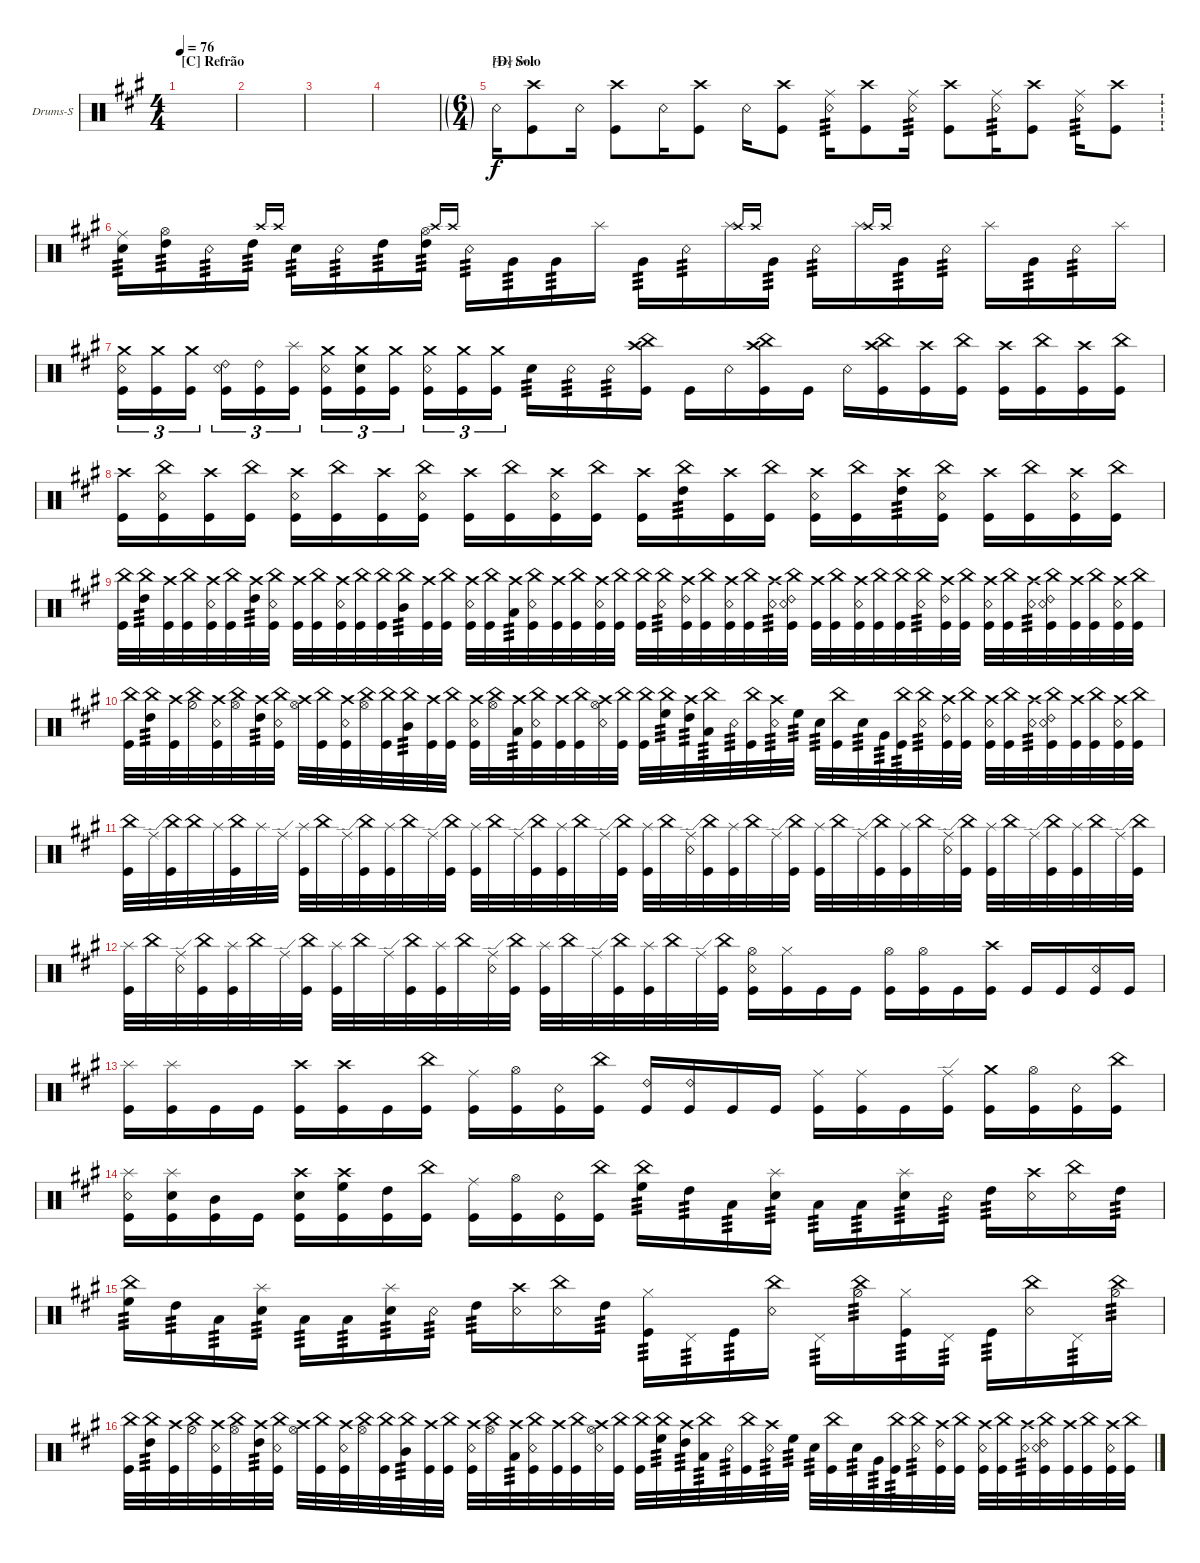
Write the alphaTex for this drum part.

\defaultSystemsLayout 4
\bracketExtendMode groupsimilarinstruments
\firstSystemTrackNameOrientation horizontal
\otherSystemsTrackNameOrientation horizontal
\track ("Drums-Solo" "Drums-S") {instrument percussion}
\staff {score}
\articulation defaults
\ts (4 4)
\section ("C" "Refrão")
\tempo 76
\clef neutral
\ks a
|
|
|
|
\ts (6 4)
\ft
\section ("D" "Solo")
"Snare (rim shot)".16 ("Kick (hit)" "Crash high (hit)").8 "Snare (rim shot)".16 ("Kick (hit)" "Crash high (hit)").8 "Snare (rim shot)".16 ("Kick (hit)" "Crash high (hit)").8 "Snare (rim shot)".16 ("Kick (hit)" "Crash high (hit)").8 ("Snare (rim shot)" "Ride (middle)").16{tp 3} ("Kick (hit)" "Crash high (hit)").8 ("Snare (rim shot)" "Ride (middle)").16{tp 3} ("Kick (hit)" "Crash high (hit)").8 ("Snare (rim shot)" "Ride (middle)").16{tp 3} ("Kick (hit)" "Crash high (hit)").8 ("Snare (rim shot)" "Ride (middle)").16{tp 3} ("Kick (hit)" "Crash high (hit)").8 |
("Snare (hit) 2" "Ride (middle)").16{tp 3} ("High Tom (hit)" "Hi-Hat (open)").16{tp 3} "Snare (rim shot)".16{tp 3} "High Tom (hit)".16{tp 3} "Crash high (hit)".16{gr onbeat} "Crash high (hit)".16{gr onbeat} "Snare (hit) 2".16{tp 3} "Snare (rim shot)".16{tp 3} "High Tom (hit)".16{tp 3} ("High Tom (hit)" "Hi-Hat (open)").16{tp 3} "Crash high (hit)".16{gr onbeat} "Crash high (hit)".16{gr onbeat} "Snare (rim shot)".16{tp 3} "Very Low Tom (hit)".16{tp 3} "Very Low Tom (hit)".16{tp 3} "Splash (hit)".16 "Very Low Tom (hit)".16{tp 3} "Snare (rim shot)".16{tp 3} "Splash (hit)".16 "Crash high (hit)".16{gr onbeat} "Crash high (hit)".16{gr onbeat} "Very Low Tom (hit)".16{tp 3} "Snare (rim shot)".16{tp 3} "Splash (hit)".16 "Crash high (hit)".16{gr onbeat} "Crash high (hit)".16{gr onbeat} "Very Low Tom (hit)".16{tp 3} "Snare (rim shot)".16{tp 3} "Splash (hit)".16 "Very Low Tom (hit)".16{tp 3} "Snare (rim shot)".16{tp 3} "Splash (hit)".16 |
("Kick (hit)" "Snare (rim shot)" "Crash medium (hit)").16{tu (3 2)} ("Kick (hit)" "Crash medium (hit)").16{tu (3 2)} ("Kick (hit)" "Crash medium (hit)").16{tu (3 2)} ("Kick (hit)" "Snare (rim shot)" "Ride (bell) 2").16{tu (3 2)} ("Kick (hit)" "Ride (bell) 2").16{tu (3 2)} ("Kick (hit)" "Splash (hit)").16{tu (3 2)} ("Kick (hit)" "Snare (rim shot)" "Crash medium (hit)").16{tu (3 2)} ("Kick (hit)" "Snare (hit) 2" "Crash medium (hit)").16{tu (3 2)} ("Kick (hit)" "Crash medium (hit)").16{tu (3 2)} ("Kick (hit)" "Snare (rim shot)" "Crash medium (hit)").16{tu (3 2)} ("Kick (hit)" "Crash medium (hit)").16{tu (3 2)} ("Kick (hit)" "Crash medium (hit)").16{tu (3 2)} "Snare (hit) 2".16{tp 3} "Snare (rim shot)".16{tp 3} "Snare (rim shot)".16{tp 3} ("China (hit)" "Crash high (hit)" "Kick (hit)").16 "Kick (hit)".16 "Snare (rim shot)".16 ("China (hit)" "Crash high (hit)" "Kick (hit)").16 "Kick (hit)".16 "Snare (rim shot)".16 ("China (hit)" "Crash high (hit)" "Kick (hit)").16 ("Kick (hit)" "Crash high (hit)").16 ("Kick (hit)" "China (hit)").16 ("Kick (hit)" "Crash high (hit)").16 ("Kick (hit)" "China (hit)").16 ("Kick (hit)" "Crash high (hit)").16 ("Kick (hit)" "China (hit)").16 |
("Kick (hit)" "Crash high (hit)").16 ("Kick (hit)" "China (hit)" "Snare (rim shot)").16 ("Kick (hit)" "Crash high (hit)").16 ("Kick (hit)" "China (hit)").16 ("Kick (hit)" "Crash high (hit)" "Snare (rim shot)").16 ("Kick (hit)" "China (hit)").16 ("Kick (hit)" "Crash high (hit)").16 ("Kick (hit)" "China (hit)" "Snare (rim shot)").16 ("Kick (hit)" "Crash high (hit)").16 ("Kick (hit)" "China (hit)").16 ("Kick (hit)" "Crash high (hit)" "Snare (rim shot)").16 ("Kick (hit)" "China (hit)").16 ("Kick (hit)" "Crash high (hit)").16 ("China (hit)" "High Tom (hit)").16{tp 3} ("Kick (hit)" "Crash high (hit)").16 ("Kick (hit)" "China (hit)").16 ("Kick (hit)" "Crash high (hit)" "Snare (rim shot)").16 ("Kick (hit)" "China (hit)").16 ("Crash high (hit)" "High Tom (hit)").16{tp 3} ("Kick (hit)" "China (hit)" "Snare (rim shot)").16 ("Kick (hit)" "Crash high (hit)").16 ("Kick (hit)" "China (hit)").16 ("Kick (hit)" "Crash high (hit)" "Snare (rim shot)").16 ("Kick (hit)" "China (hit)").16 |
("Kick (hit)" "China (hit)").32 ("China (hit)" "High Tom (hit)").32{tp 3} ("Kick (hit)" "Crash high (hit)").32 ("Kick (hit)" "China (hit)").32 ("Kick (hit)" "Crash high (hit)" "Snare (rim shot)").32 ("Kick (hit)" "China (hit)").32 ("Crash high (hit)" "High Tom (hit)").32{tp 3} ("Kick (hit)" "China (hit)" "Snare (rim shot)").32 ("Kick (hit)" "Crash high (hit)").32 ("Kick (hit)" "China (hit)").32 ("Kick (hit)" "Crash high (hit)" "Snare (rim shot)").32 ("Kick (hit)" "China (hit)").32 ("Kick (hit)" "China (hit)").32 ("China (hit)" "Mid Tom (hit)").32{tp 3} ("Kick (hit)" "Crash high (hit)").32 ("Kick (hit)" "China (hit)").32 ("Kick (hit)" "Crash high (hit)" "Snare (rim shot)").32 ("Kick (hit)" "China (hit)").32 ("Crash high (hit)" "Low Tom (hit)").32{tp 3} ("Kick (hit)" "China (hit)" "Snare (rim shot)").32 ("Kick (hit)" "Crash high (hit)").32 ("Kick (hit)" "China (hit)").32 ("Kick (hit)" "Crash high (hit)" "Snare (rim shot)").32 ("Kick (hit)" "China (hit)").32 ("Kick (hit)" "China (hit)").32 ("China (hit)" "Snare (rim shot)").32{tp 3} ("Kick (hit)" "Crash high (hit)" "Ride (bell) 2").32 ("Kick (hit)" "China (hit)").32 ("Kick (hit)" "Crash high (hit)" "Snare (rim shot)").32 ("Kick (hit)" "China (hit)").32 ("Crash high (hit)" "Snare (rim shot)").32{tp 3} ("Kick (hit)" "China (hit)" "Snare (rim shot)" "Ride (bell) 2").32 ("Kick (hit)" "Crash high (hit)").32 ("Kick (hit)" "China (hit)").32 ("Kick (hit)" "Crash high (hit)" "Snare (rim shot)").32 ("Kick (hit)" "China (hit)").32 ("Kick (hit)" "China (hit)").32 ("China (hit)" "Snare (rim shot)").32{tp 3} ("Kick (hit)" "Crash high (hit)" "Ride (bell) 2").32 ("Kick (hit)" "China (hit)").32 ("Kick (hit)" "Crash high (hit)" "Snare (rim shot)").32 ("Kick (hit)" "China (hit)").32 ("Crash high (hit)" "Snare (rim shot)").32{tp 3} ("Kick (hit)" "China (hit)" "Snare (rim shot)" "Ride (bell) 2").32 ("Kick (hit)" "Crash high (hit)").32 ("Kick (hit)" "China (hit)").32 ("Kick (hit)" "Crash high (hit)" "Snare (rim shot)").32 ("Kick (hit)" "China (hit)").32 |
("Kick (hit)" "China (hit)").32 ("China (hit)" "High Tom (hit)").32{tp 3} ("Kick (hit)" "Crash high (hit)").32 ("China (hit)" "Hi-Hat (half)").32 ("Kick (hit)" "Crash high (hit)" "Snare (rim shot)").32 ("China (hit)" "Hi-Hat (open)").32 ("Crash high (hit)" "High Tom (hit)").32{tp 3} ("Kick (hit)" "China (hit)" "Snare (rim shot)").32 ("Crash high (hit)" "Hi-Hat (open)").32 ("Kick (hit)" "China (hit)").32 ("Kick (hit)" "Crash high (hit)" "Snare (rim shot)").32 ("China (hit)" "Hi-Hat (open)").32 ("Kick (hit)" "China (hit)").32 ("China (hit)" "Mid Tom (hit)").32{tp 3} ("Kick (hit)" "Crash high (hit)").32 ("Kick (hit)" "China (hit)").32 ("Kick (hit)" "Crash high (hit)" "Snare (rim shot)").32 ("China (hit)" "Hi-Hat (open)").32 ("Crash high (hit)" "Low Tom (hit)").32{tp 3} ("Kick (hit)" "China (hit)" "Snare (rim shot)").32 ("Kick (hit)" "Crash high (hit)").32 ("Kick (hit)" "China (hit)").32 ("Crash high (hit)" "Snare (rim shot)" "Hi-Hat (open)").32 ("Kick (hit)" "China (hit)").32 ("Kick (hit)" "China (hit)").32 ("China (hit)" "High Floor Tom (hit)").32{tp 3} ("Crash high (hit)" "High Tom (hit)").32{tp 3} ("China (hit)" "Low Tom (hit)").32{tp 3} "Snare (rim shot)".32{tp 3} ("Kick (hit)" "China (hit)").32 ("Crash high (hit)" "Snare (rim shot)").32{tp 3} "High Floor Tom (hit)".32{tp 3} "Snare (hit) 2".32{tp 3} ("Kick (hit)" "China (hit)").32 "Snare (hit) 2".32{tp 3} "Very Low Tom (hit)".32{tp 3} ("Kick (hit)" "China (hit)").32{tp 3} ("China (hit)" "Snare (rim shot)").32{tp 3} ("Kick (hit)" "Crash high (hit)" "Ride (bell) 2").32 ("Kick (hit)" "China (hit)").32 ("Kick (hit)" "Crash high (hit)" "Snare (rim shot)").32 ("Kick (hit)" "China (hit)").32 ("Crash high (hit)" "Snare (rim shot)").32{tp 3} ("Kick (hit)" "China (hit)" "Snare (rim shot)" "Ride (bell) 2").32 ("Kick (hit)" "Crash high (hit)").32 ("Kick (hit)" "China (hit)").32 ("Kick (hit)" "Crash high (hit)" "Snare (rim shot)").32 ("Kick (hit)" "China (hit)").32 |
("Kick (hit)" "China (hit)").32 "Ride (edge)".32 ("Kick (hit)" "China (hit)").32 "China (hit)".32 "Splash (hit)".32 ("Kick (hit)" "China (hit)").32 "Splash (hit)".32 "Ride (edge)".32 ("Kick (hit)" "Splash (hit)").32 "China (hit)".32 "Ride (edge)".32 ("Kick (hit)" "China (hit)").32 ("Kick (hit)" "Splash (hit)").32 "China (hit)".32 "Ride (edge)".32 ("Kick (hit)" "China (hit)").32 ("Kick (hit)" "Splash (hit)").32 "China (hit)".32 "Ride (edge)".32 ("Kick (hit)" "China (hit)").32 ("Kick (hit)" "Splash (hit)").32 "China (hit)".32 "Ride (edge)".32 ("Kick (hit)" "China (hit)").32 ("Kick (hit)" "Splash (hit)").32 "China (hit)".32 ("Ride (edge)" "Snare (rim shot)").32 ("Kick (hit)" "China (hit)").32 ("Kick (hit)" "Splash (hit)").32 "China (hit)".32 "Ride (edge)".32 ("Kick (hit)" "China (hit)").32 ("Kick (hit)" "Splash (hit)").32 "China (hit)".32 "Ride (edge)".32 ("Kick (hit)" "China (hit)").32 ("Kick (hit)" "Splash (hit)").32 "China (hit)".32 ("Ride (edge)" "Snare (rim shot)").32 ("Kick (hit)" "China (hit)").32 ("Kick (hit)" "Splash (hit)").32 "China (hit)".32 "Ride (edge)".32 ("Kick (hit)" "China (hit)").32 ("Kick (hit)" "Splash (hit)").32 "China (hit)".32 "Ride (edge)".32 ("Kick (hit)" "China (hit)").32 |
("Kick (hit)" "Splash (hit)").32 "China (hit)".32 ("Ride (edge)" "Snare (rim shot)").32 ("Kick (hit)" "China (hit)").32 ("Kick (hit)" "Splash (hit)").32 "China (hit)".32 "Ride (edge)".32 ("Kick (hit)" "China (hit)").32 ("Kick (hit)" "Splash (hit)").32 "China (hit)".32 "Ride (edge)".32 ("Kick (hit)" "China (hit)").32 ("Kick (hit)" "Splash (hit)").32 "China (hit)".32 ("Ride (edge)" "Snare (rim shot)").32 ("Kick (hit)" "China (hit)").32 ("Kick (hit)" "Splash (hit)").32 "China (hit)".32 "Ride (edge)".32 ("Kick (hit)" "China (hit)").32 ("Kick (hit)" "Splash (hit)").32 "China (hit)".32 "Ride (edge)".32 ("Kick (hit)" "China (hit)").32 ("Hi-Hat (open)" "Snare (rim shot)" "Kick (hit)").16 ("Kick (hit)" "Hi-Hat (closed)").16 "Kick (hit)".16 "Kick (hit)".16 ("Kick (hit)" "Hi-Hat (open)").16 ("Kick (hit)" "Hi-Hat (open)").16 "Kick (hit)".16 ("Kick (hit)" "Crash high (hit)").16 "Kick (hit)".16 "Kick (hit)".16 ("Kick (hit)" "Snare (rim shot)").16 "Kick (hit)".16 |
("Splash (hit)" "Kick (hit)").16 ("Kick (hit)" "Splash (hit)").16 "Kick (hit)".16 "Kick (hit)".16 ("Kick (hit)" "Crash high (hit)").16 ("Kick (hit)" "Crash high (hit)").16 "Kick (hit)".16 ("Kick (hit)" "China (hit)").16 ("Kick (hit)" "Ride (middle)").16 ("Kick (hit)" "Hi-Hat (open)").16 ("Kick (hit)" "Snare (rim shot)").16 ("Kick (hit)" "China (hit)").16 ("Kick (hit)" "Ride (bell) 2").16 ("Kick (hit)" "Ride (bell) 2").16 "Kick (hit)".16 "Kick (hit)".16 ("Kick (hit)" "Ride (middle)").16 ("Kick (hit)" "Ride (middle)").16 "Kick (hit)".16 ("Kick (hit)" "Ride (edge)").16 ("Kick (hit)" "Crash medium (hit)").16 ("Kick (hit)" "Hi-Hat (open)").16 ("Kick (hit)" "Snare (rim shot)").16 ("Kick (hit)" "China (hit)").16 |
("Splash (hit)" "Kick (hit)" "Snare (rim shot)").16 ("Kick (hit)" "Splash (hit)" "Snare (hit) 2").16 ("Kick (hit)" "Mid Tom (hit)").16 "Kick (hit)".16 ("Kick (hit)" "Crash high (hit)" "Snare (hit) 2").16 ("Kick (hit)" "Crash high (hit)" "High Floor Tom (hit)").16 ("Kick (hit)" "High Tom (hit)").16 ("Kick (hit)" "China (hit)").16 ("Kick (hit)" "Ride (middle)").16 ("Kick (hit)" "Hi-Hat (open)").16 ("Kick (hit)" "Snare (rim shot)").16 ("Kick (hit)" "China (hit)").16 ("China (hit)" "High Floor Tom (hit)").16{tp 3} "High Tom (hit)".16{tp 3} "Low Tom (hit)".16{tp 3} ("Snare (hit) 2" "Splash (hit)").16{tp 3} "Low Tom (hit)".16{tp 3} "Low Tom (hit)".16{tp 3} ("Snare (hit) 2" "Splash (hit)").16{tp 3} "Snare (rim shot)".16{tp 3} "High Tom (hit)".16{tp 3} ("Snare (rim shot)" "Crash high (hit)").16 ("China (hit)" "Snare (rim shot)").16 "High Tom (hit)".16{tp 3} |
("China (hit)" "High Floor Tom (hit)").16{tp 3} "High Tom (hit)".16{tp 3} "Low Tom (hit)".16{tp 3} ("Snare (hit) 2" "Splash (hit)").16{tp 3} "Low Tom (hit)".16{tp 3} "Low Tom (hit)".16{tp 3} ("Snare (hit) 2" "Splash (hit)").16{tp 3} "Snare (rim shot)".16{tp 3} "High Tom (hit)".16{tp 3} ("Snare (rim shot)" "Crash high (hit)").16 ("China (hit)" "Snare (rim shot)").16 "High Tom (hit)".16{tp 3} ("Kick (hit)" "Hi-Hat (closed)").16{tp 3} "Pedal Hi-Hat (hit)".16{tp 3} "Kick (hit)".16{tp 3} ("Snare (rim shot)" "China (hit)").16 "Pedal Hi-Hat (hit)".16{tp 3} ("China (hit)" "Hi-Hat (half)").16{tp 3} ("Kick (hit)" "Hi-Hat (closed)").16{tp 3} "Pedal Hi-Hat (hit)".16{tp 3} "Kick (hit)".16{tp 3} ("Snare (rim shot)" "China (hit)").16 "Pedal Hi-Hat (hit)".16{tp 3} ("China (hit)" "Hi-Hat (half)").16{tp 3} |
("Kick (hit)" "China (hit)").32 ("China (hit)" "High Tom (hit)").32{tp 3} ("Kick (hit)" "Crash high (hit)").32 ("China (hit)" "Hi-Hat (half)").32 ("Kick (hit)" "Crash high (hit)" "Snare (rim shot)").32 ("China (hit)" "Hi-Hat (open)").32 ("Crash high (hit)" "High Tom (hit)").32{tp 3} ("Kick (hit)" "China (hit)" "Snare (rim shot)").32 ("Crash high (hit)" "Hi-Hat (open)").32 ("Kick (hit)" "China (hit)").32 ("Kick (hit)" "Crash high (hit)" "Snare (rim shot)").32 ("China (hit)" "Hi-Hat (open)").32 ("Kick (hit)" "China (hit)").32 ("China (hit)" "Mid Tom (hit)").32{tp 3} ("Kick (hit)" "Crash high (hit)").32 ("Kick (hit)" "China (hit)").32 ("Kick (hit)" "Crash high (hit)" "Snare (rim shot)").32 ("China (hit)" "Hi-Hat (open)").32 ("Crash high (hit)" "Low Tom (hit)").32{tp 3} ("Kick (hit)" "China (hit)" "Snare (rim shot)").32 ("Kick (hit)" "Crash high (hit)").32 ("Kick (hit)" "China (hit)").32 ("Crash high (hit)" "Snare (rim shot)" "Hi-Hat (open)").32 ("Kick (hit)" "China (hit)").32 ("Kick (hit)" "China (hit)").32 ("China (hit)" "High Floor Tom (hit)").32{tp 3} ("Crash high (hit)" "High Tom (hit)").32{tp 3} ("China (hit)" "Low Tom (hit)").32{tp 3} "Snare (rim shot)".32{tp 3} ("Kick (hit)" "China (hit)").32 ("Crash high (hit)" "Snare (rim shot)").32{tp 3} "High Floor Tom (hit)".32{tp 3} "Snare (hit) 2".32{tp 3} ("Kick (hit)" "China (hit)").32 "Snare (hit) 2".32{tp 3} "Very Low Tom (hit)".32{tp 3} ("Kick (hit)" "China (hit)").32{tp 3} ("China (hit)" "Snare (rim shot)").32{tp 3} ("Kick (hit)" "Crash high (hit)" "Ride (bell) 2").32 ("Kick (hit)" "China (hit)").32 ("Kick (hit)" "Crash high (hit)" "Snare (rim shot)").32 ("Kick (hit)" "China (hit)").32 ("Crash high (hit)" "Snare (rim shot)").32{tp 3} ("Kick (hit)" "China (hit)" "Snare (rim shot)" "Ride (bell) 2").32 ("Kick (hit)" "Crash high (hit)").32 ("Kick (hit)" "China (hit)").32 ("Kick (hit)" "Crash high (hit)" "Snare (rim shot)").32 ("Kick (hit)" "China (hit)").32
